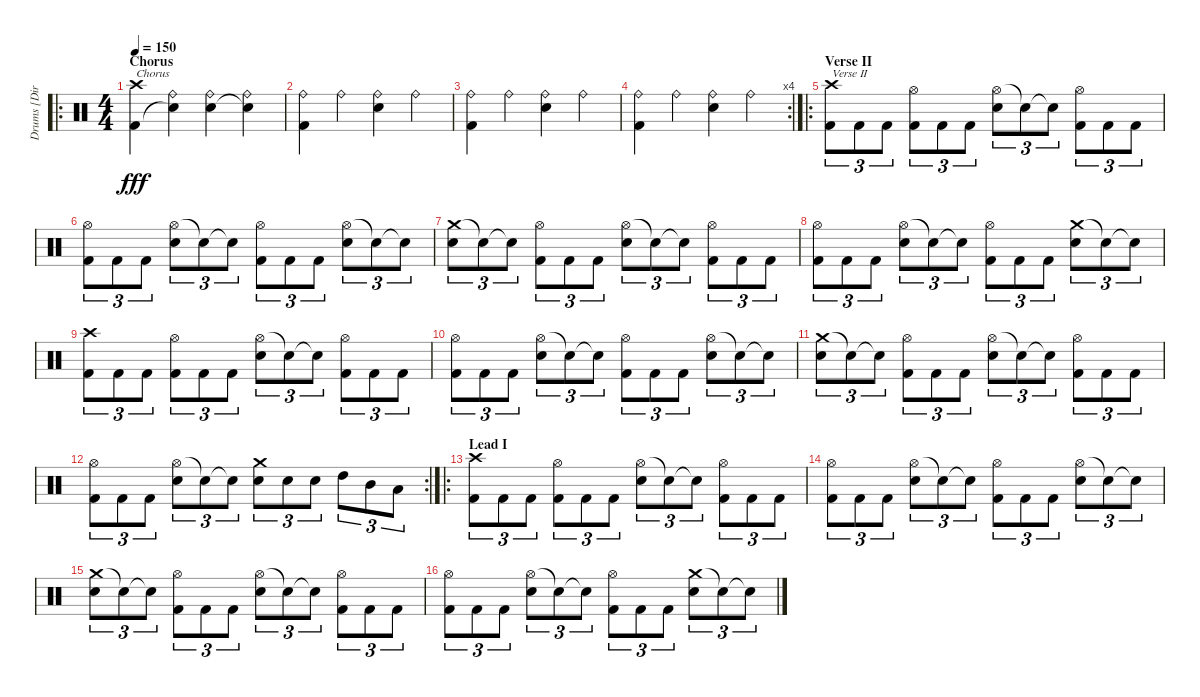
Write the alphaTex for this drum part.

\track ("Drums [Dirge Rep]" "Drums [Dir") {instrument percussion}
\staff {score}
\articulation defaults
\ro
\ts (4 4)
\section ("" "Chorus")
\tempo 150
\clef neutral
\ks c
("Crash high (hit)" "Kick (hit) 2").4{txt "Chorus" dy fff} ("Ride (bell)" "Snare (hit)"{t}).4 ("Ride (bell)" "Electric Snare (hit)").4 ("Ride (bell)" "Snare (hit)"{t}).4 |
("Ride (bell)" "Kick (hit) 2").4 "Ride (bell)".4 ("Ride (bell)" "Electric Snare (hit)").4 "Ride (bell)".4 |
("Ride (bell)" "Kick (hit) 2").4 "Ride (bell)".4 ("Ride (bell)" "Electric Snare (hit)").4 "Ride (bell)".4 |
\rc 4
("Ride (bell)" "Kick (hit) 2").4 "Ride (bell)".4 ("Ride (bell)" "Electric Snare (hit)").4 "Ride (bell)".4 |
\ro
\section ("" "Verse II")
("Crash high (hit)" "Kick (hit) 2").8{tu (3 2) txt "Verse II"} "Kick (hit) 2".8{tu (3 2)} "Kick (hit) 2".8{tu (3 2)} ("Hi-Hat (open)" "Kick (hit) 2").8{tu (3 2)} "Kick (hit) 2".8{tu (3 2)} "Kick (hit) 2".8{tu (3 2)} ("Hi-Hat (open)" "Electric Snare (hit)").8{tu (3 2)} "Snare (hit)"{t}.8{tu (3 2)} "Snare (hit)"{t}.8{tu (3 2)} ("Hi-Hat (open)" "Kick (hit) 2").8{tu (3 2)} "Kick (hit) 2".8{tu (3 2)} "Kick (hit) 2".8{tu (3 2)} |
("Hi-Hat (open)" "Kick (hit) 2").8{tu (3 2)} "Kick (hit) 2".8{tu (3 2)} "Kick (hit) 2".8{tu (3 2)} ("Hi-Hat (open)" "Electric Snare (hit)").8{tu (3 2)} "Snare (hit)"{t}.8{tu (3 2)} "Snare (hit)"{t}.8{tu (3 2)} ("Hi-Hat (open)" "Kick (hit) 2").8{tu (3 2)} "Kick (hit) 2".8{tu (3 2)} "Kick (hit) 2".8{tu (3 2)} ("Hi-Hat (open)" "Electric Snare (hit)").8{tu (3 2)} "Snare (hit)"{t}.8{tu (3 2)} "Snare (hit)"{t}.8{tu (3 2)} |
("Crash medium (hit)" "Electric Snare (hit)").8{tu (3 2)} "Snare (hit)"{t}.8{tu (3 2)} "Snare (hit)"{t}.8{tu (3 2)} ("Hi-Hat (open)" "Kick (hit) 2").8{tu (3 2)} "Kick (hit) 2".8{tu (3 2)} "Kick (hit) 2".8{tu (3 2)} ("Hi-Hat (open)" "Electric Snare (hit)").8{tu (3 2)} "Snare (hit)"{t}.8{tu (3 2)} "Snare (hit)"{t}.8{tu (3 2)} ("Hi-Hat (open)" "Kick (hit) 2").8{tu (3 2)} "Kick (hit) 2".8{tu (3 2)} "Kick (hit) 2".8{tu (3 2)} |
("Hi-Hat (open)" "Kick (hit) 2").8{tu (3 2)} "Kick (hit) 2".8{tu (3 2)} "Kick (hit) 2".8{tu (3 2)} ("Hi-Hat (open)" "Electric Snare (hit)").8{tu (3 2)} "Snare (hit)"{t}.8{tu (3 2)} "Snare (hit)"{t}.8{tu (3 2)} ("Hi-Hat (open)" "Kick (hit) 2").8{tu (3 2)} "Kick (hit) 2".8{tu (3 2)} "Kick (hit) 2".8{tu (3 2)} ("Crash medium (hit)" "Electric Snare (hit)").8{tu (3 2)} "Snare (hit)"{t}.8{tu (3 2)} "Snare (hit)"{t}.8{tu (3 2)} |
("Crash high (hit)" "Kick (hit) 2").8{tu (3 2)} "Kick (hit) 2".8{tu (3 2)} "Kick (hit) 2".8{tu (3 2)} ("Hi-Hat (open)" "Kick (hit) 2").8{tu (3 2)} "Kick (hit) 2".8{tu (3 2)} "Kick (hit) 2".8{tu (3 2)} ("Hi-Hat (open)" "Electric Snare (hit)").8{tu (3 2)} "Snare (hit)"{t}.8{tu (3 2)} "Snare (hit)"{t}.8{tu (3 2)} ("Hi-Hat (open)" "Kick (hit) 2").8{tu (3 2)} "Kick (hit) 2".8{tu (3 2)} "Kick (hit) 2".8{tu (3 2)} |
("Hi-Hat (open)" "Kick (hit) 2").8{tu (3 2)} "Kick (hit) 2".8{tu (3 2)} "Kick (hit) 2".8{tu (3 2)} ("Hi-Hat (open)" "Electric Snare (hit)").8{tu (3 2)} "Snare (hit)"{t}.8{tu (3 2)} "Snare (hit)"{t}.8{tu (3 2)} ("Hi-Hat (open)" "Kick (hit) 2").8{tu (3 2)} "Kick (hit) 2".8{tu (3 2)} "Kick (hit) 2".8{tu (3 2)} ("Hi-Hat (open)" "Electric Snare (hit)").8{tu (3 2)} "Snare (hit)"{t}.8{tu (3 2)} "Snare (hit)"{t}.8{tu (3 2)} |
("Crash medium (hit)" "Electric Snare (hit)").8{tu (3 2)} "Snare (hit)"{t}.8{tu (3 2)} "Snare (hit)"{t}.8{tu (3 2)} ("Hi-Hat (open)" "Kick (hit) 2").8{tu (3 2)} "Kick (hit) 2".8{tu (3 2)} "Kick (hit) 2".8{tu (3 2)} ("Hi-Hat (open)" "Electric Snare (hit)").8{tu (3 2)} "Snare (hit)"{t}.8{tu (3 2)} "Snare (hit)"{t}.8{tu (3 2)} ("Hi-Hat (open)" "Kick (hit) 2").8{tu (3 2)} "Kick (hit) 2".8{tu (3 2)} "Kick (hit) 2".8{tu (3 2)} |
\rc 2
("Hi-Hat (open)" "Kick (hit) 2").8{tu (3 2)} "Kick (hit) 2".8{tu (3 2)} "Kick (hit) 2".8{tu (3 2)} ("Hi-Hat (open)" "Electric Snare (hit)").8{tu (3 2)} "Snare (hit)"{t}.8{tu (3 2)} "Snare (hit)"{t}.8{tu (3 2)} ("Crash medium (hit)" "Electric Snare (hit)").8{tu (3 2)} "Electric Snare (hit)".8{tu (3 2)} "Electric Snare (hit)".8{tu (3 2)} "High Tom (hit)".8{tu (3 2)} "Mid Tom (hit)".8{tu (3 2)} "Low Tom (hit)".8{tu (3 2)} |
\ro
\section ("" "Lead I")
("Crash high (hit)" "Kick (hit) 2").8{tu (3 2)} "Kick (hit) 2".8{tu (3 2)} "Kick (hit) 2".8{tu (3 2)} ("Hi-Hat (open)" "Kick (hit) 2").8{tu (3 2)} "Kick (hit) 2".8{tu (3 2)} "Kick (hit) 2".8{tu (3 2)} ("Hi-Hat (open)" "Electric Snare (hit)").8{tu (3 2)} "Snare (hit)"{t}.8{tu (3 2)} "Snare (hit)"{t}.8{tu (3 2)} ("Hi-Hat (open)" "Kick (hit) 2").8{tu (3 2)} "Kick (hit) 2".8{tu (3 2)} "Kick (hit) 2".8{tu (3 2)} |
("Hi-Hat (open)" "Kick (hit) 2").8{tu (3 2)} "Kick (hit) 2".8{tu (3 2)} "Kick (hit) 2".8{tu (3 2)} ("Hi-Hat (open)" "Electric Snare (hit)").8{tu (3 2)} "Snare (hit)"{t}.8{tu (3 2)} "Snare (hit)"{t}.8{tu (3 2)} ("Hi-Hat (open)" "Kick (hit) 2").8{tu (3 2)} "Kick (hit) 2".8{tu (3 2)} "Kick (hit) 2".8{tu (3 2)} ("Hi-Hat (open)" "Electric Snare (hit)").8{tu (3 2)} "Snare (hit)"{t}.8{tu (3 2)} "Snare (hit)"{t}.8{tu (3 2)} |
("Crash medium (hit)" "Electric Snare (hit)").8{tu (3 2)} "Snare (hit)"{t}.8{tu (3 2)} "Snare (hit)"{t}.8{tu (3 2)} ("Hi-Hat (open)" "Kick (hit) 2").8{tu (3 2)} "Kick (hit) 2".8{tu (3 2)} "Kick (hit) 2".8{tu (3 2)} ("Hi-Hat (open)" "Electric Snare (hit)").8{tu (3 2)} "Snare (hit)"{t}.8{tu (3 2)} "Snare (hit)"{t}.8{tu (3 2)} ("Hi-Hat (open)" "Kick (hit) 2").8{tu (3 2)} "Kick (hit) 2".8{tu (3 2)} "Kick (hit) 2".8{tu (3 2)} |
("Hi-Hat (open)" "Kick (hit) 2").8{tu (3 2)} "Kick (hit) 2".8{tu (3 2)} "Kick (hit) 2".8{tu (3 2)} ("Hi-Hat (open)" "Electric Snare (hit)").8{tu (3 2)} "Snare (hit)"{t}.8{tu (3 2)} "Snare (hit)"{t}.8{tu (3 2)} ("Hi-Hat (open)" "Kick (hit) 2").8{tu (3 2)} "Kick (hit) 2".8{tu (3 2)} "Kick (hit) 2".8{tu (3 2)} ("Crash medium (hit)" "Electric Snare (hit)").8{tu (3 2)} "Snare (hit)"{t}.8{tu (3 2)} "Snare (hit)"{t}.8{tu (3 2)}
